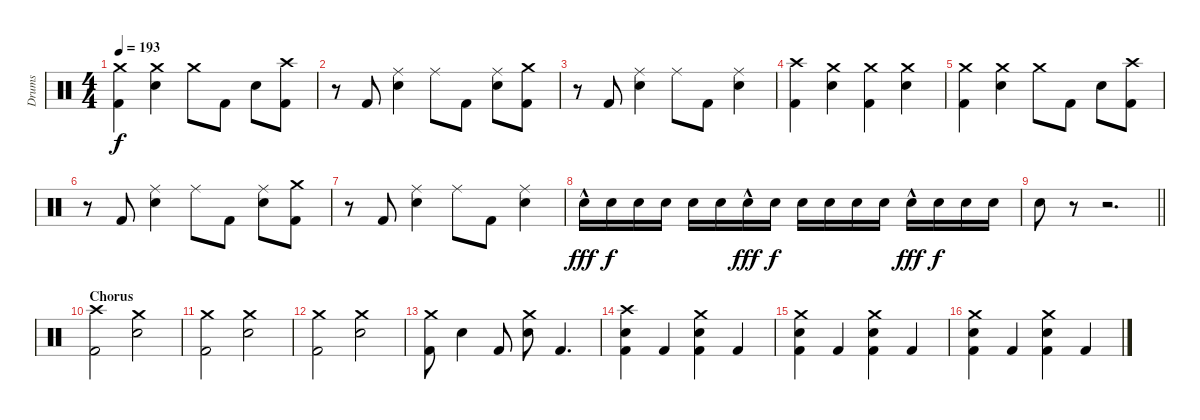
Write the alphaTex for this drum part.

\track ("Drums" "Drums") {instrument percussion}
\staff {score}
\articulation defaults
\ts (4 4)
\tempo 193
\clef neutral
\ks c
("Crash medium (hit)" "Kick (hit) 2").4{dy f} ("Crash medium (hit)" "Snare (hit) 2").4 "Crash medium (hit)".8 "Kick (hit) 2".8 "Snare (hit) 2".8 ("Crash high (hit)" "Kick (hit) 2").8 |
r.8 "Kick (hit) 2".8 ("Ride (middle)" "Snare (hit) 2").4 "Ride (middle)".8 "Kick (hit) 2".8 ("Ride (middle)" "Snare (hit) 2").8 ("Crash medium (hit)" "Kick (hit) 2").8 |
r.8 "Kick (hit) 2".8 ("Ride (middle)" "Snare (hit) 2").4 "Ride (middle)".8 "Kick (hit) 2".8 ("Ride (middle)" "Snare (hit) 2").4 |
("Crash high (hit)" "Kick (hit) 2").4 ("Crash medium (hit)" "Snare (hit) 2").4 ("Crash medium (hit)" "Kick (hit) 2").4 ("Crash medium (hit)" "Snare (hit) 2").4 |
("Crash medium (hit)" "Kick (hit) 2").4 ("Crash medium (hit)" "Snare (hit) 2").4 "Crash medium (hit)".8 "Kick (hit) 2".8 "Snare (hit) 2".8 ("Crash high (hit)" "Kick (hit) 2").8 |
r.8 "Kick (hit) 2".8 ("Ride (middle)" "Snare (hit) 2").4 "Ride (middle)".8 "Kick (hit) 2".8 ("Ride (middle)" "Snare (hit) 2").8 ("Crash medium (hit)" "Kick (hit) 2").8 |
r.8 "Kick (hit) 2".8 ("Ride (middle)" "Snare (hit) 2").4 "Ride (middle)".8 "Kick (hit) 2".8 ("Ride (middle)" "Snare (hit) 2").4 |
"Snare (hit) 2"{hac}.16{dy fff} "Snare (hit) 2".16{dy f} "Snare (hit) 2".16 "Snare (hit) 2".16 "Snare (hit) 2".16 "Snare (hit) 2".16 "Snare (hit) 2"{hac}.16{dy fff} "Snare (hit) 2".16{dy f} "Snare (hit) 2".16 "Snare (hit) 2".16 "Snare (hit) 2".16 "Snare (hit) 2".16 "Snare (hit) 2"{hac}.16{dy fff} "Snare (hit) 2".16{dy f} "Snare (hit) 2".16 "Snare (hit) 2".16 |
\barLineRight lightlight "Snare (hit) 2".8
r.8 r.2{d} |
\section ("" "Chorus")
("Crash high (hit)" "Kick (hit) 2").2 ("Crash medium (hit)" "Snare (hit) 2").2 |
("Crash medium (hit)" "Kick (hit) 2").2 ("Crash medium (hit)" "Snare (hit) 2").2 |
("Crash medium (hit)" "Kick (hit) 2").2 ("Crash medium (hit)" "Snare (hit) 2").2 |
("Crash medium (hit)" "Kick (hit) 2").8 "Snare (hit) 2".4 "Kick (hit) 2".8 ("Crash medium (hit)" "Snare (hit) 2").8 "Kick (hit) 2".4{d} |
("Crash high (hit)" "Snare (hit) 2" "Kick (hit) 2").4 "Kick (hit) 2".4 ("Crash medium (hit)" "Snare (hit) 2" "Kick (hit) 2").4 "Kick (hit) 2".4 |
("Crash medium (hit)" "Snare (hit) 2" "Kick (hit) 2").4 "Kick (hit) 2".4 ("Crash medium (hit)" "Snare (hit) 2" "Kick (hit) 2").4 "Kick (hit) 2".4 |
("Crash medium (hit)" "Snare (hit) 2" "Kick (hit) 2").4 "Kick (hit) 2".4 ("Crash medium (hit)" "Snare (hit) 2" "Kick (hit) 2").4 "Kick (hit) 2".4
